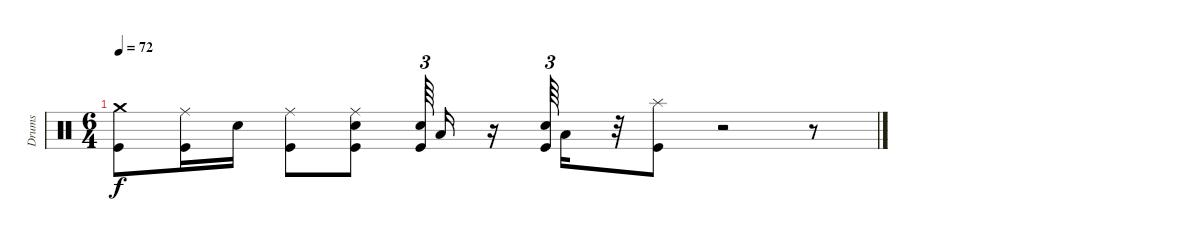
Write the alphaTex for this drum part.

\track ("Drums" "Drums") {instrument percussion}
\staff {score}
\articulation defaults
\ts (6 4)
\tempo 72
\clef neutral
\ks c
("Crash medium (hit)" "Kick (hit)").8{dy f} ("Ride (middle)" "Kick (hit)").16 "Snare (hit) 2".16 ("Ride (middle)" "Kick (hit)").8 ("Snare (hit) 2" "Ride (middle)" "Kick (hit)").8 ("Kick (hit)" "Snare (hit) 2").64{tu (3 2) beam splitsecondary} "Low Floor Tom (hit)".16 r.16 ("Kick (hit)" "Snare (hit) 2").64{tu (3 2)} "Low Floor Tom (hit)".16 r.32 ("Kick (hit)" "Splash (hit)").8 r.2 r.8
